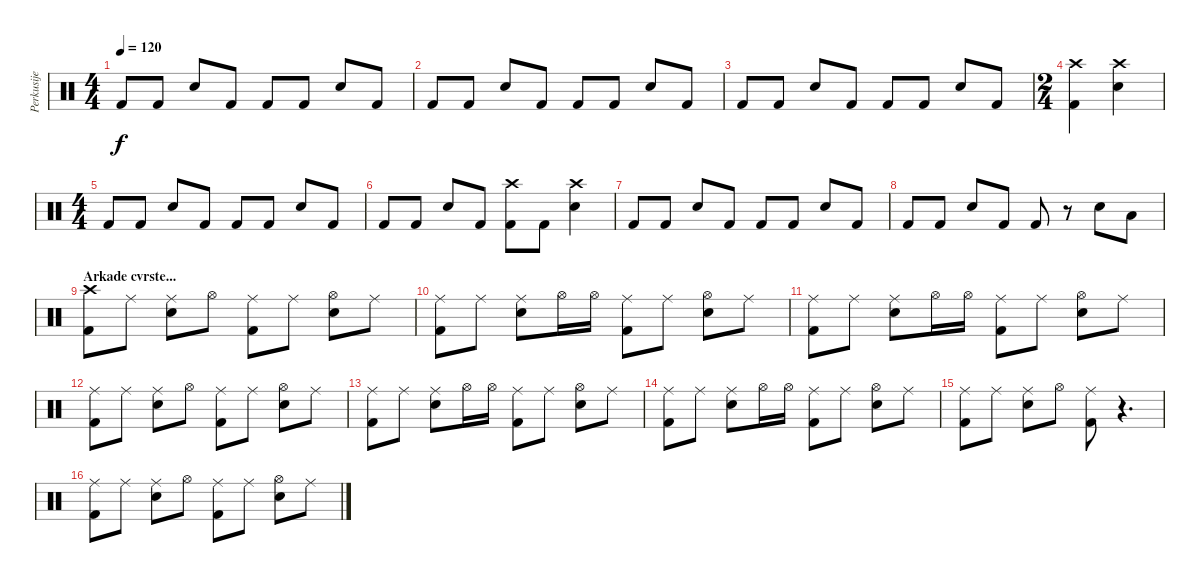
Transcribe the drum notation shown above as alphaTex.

\track ("Perkusije" "Perkusije") {instrument percussion}
\staff {score}
\articulation defaults
\ts (4 4)
\tempo 120
\clef neutral
\ks c "Kick (hit) 2".8{dy f} "Kick (hit) 2".8 "Electric Snare (hit)".8 "Kick (hit) 2".8 "Kick (hit) 2".8 "Kick (hit) 2".8 "Electric Snare (hit)".8 "Kick (hit) 2".8
|
"Kick (hit) 2".8 "Kick (hit) 2".8 "Electric Snare (hit)".8 "Kick (hit) 2".8 "Kick (hit) 2".8 "Kick (hit) 2".8 "Electric Snare (hit)".8 "Kick (hit) 2".8 |
"Kick (hit) 2".8 "Kick (hit) 2".8 "Electric Snare (hit)".8 "Kick (hit) 2".8 "Kick (hit) 2".8 "Kick (hit) 2".8 "Electric Snare (hit)".8 "Kick (hit) 2".8 |
\ts (2 4)
("Crash high (hit)" "Kick (hit) 2").4 ("Crash high (hit)" "Electric Snare (hit)").4 |
\ts (4 4)
"Kick (hit) 2".8 "Kick (hit) 2".8 "Electric Snare (hit)".8 "Kick (hit) 2".8 "Kick (hit) 2".8 "Kick (hit) 2".8 "Electric Snare (hit)".8 "Kick (hit) 2".8 |
"Kick (hit) 2".8 "Kick (hit) 2".8 "Electric Snare (hit)".8 "Kick (hit) 2".8 ("Crash high (hit)" "Kick (hit) 2").8 "Kick (hit) 2".8 ("Crash high (hit)" "Electric Snare (hit)").4 |
"Kick (hit) 2".8 "Kick (hit) 2".8 "Electric Snare (hit)".8 "Kick (hit) 2".8 "Kick (hit) 2".8 "Kick (hit) 2".8 "Electric Snare (hit)".8 "Kick (hit) 2".8 |
"Kick (hit) 2".8 "Kick (hit) 2".8 "Electric Snare (hit)".8 "Kick (hit) 2".8 "Kick (hit) 2".8 r.8 "Electric Snare (hit)".8 "Low Floor Tom (hit)".8 |
\section ("" "Arkade cvrste...")
("Crash high (hit)" "Kick (hit) 2").8 "Ride (middle)".8 ("Ride (middle)" "Electric Snare (hit)").8 "Hi-Hat (open)".8 ("Ride (middle)" "Kick (hit) 2").8 "Ride (middle)".8 ("Hi-Hat (open)" "Electric Snare (hit)").8 "Ride (middle)".8 |
("Ride (middle)" "Kick (hit) 2").8 "Ride (middle)".8 ("Ride (middle)" "Electric Snare (hit)").8 "Hi-Hat (open)".16 "Hi-Hat (open)".16 ("Ride (middle)" "Kick (hit) 2").8 "Ride (middle)".8 ("Hi-Hat (open)" "Electric Snare (hit)").8 "Ride (middle)".8 |
("Ride (middle)" "Kick (hit) 2").8 "Ride (middle)".8 ("Ride (middle)" "Electric Snare (hit)").8 "Hi-Hat (open)".16 "Hi-Hat (open)".16 ("Ride (middle)" "Kick (hit) 2").8 "Ride (middle)".8 ("Hi-Hat (open)" "Electric Snare (hit)").8 "Ride (middle)".8 |
("Ride (middle)" "Kick (hit) 2").8 "Ride (middle)".8 ("Ride (middle)" "Electric Snare (hit)").8 "Hi-Hat (open)".8 ("Ride (middle)" "Kick (hit) 2").8 "Ride (middle)".8 ("Hi-Hat (open)" "Electric Snare (hit)").8 "Ride (middle)".8 |
("Ride (middle)" "Kick (hit) 2").8 "Ride (middle)".8 ("Ride (middle)" "Electric Snare (hit)").8 "Hi-Hat (open)".16 "Hi-Hat (open)".16 ("Ride (middle)" "Kick (hit) 2").8 "Ride (middle)".8 ("Hi-Hat (open)" "Electric Snare (hit)").8 "Ride (middle)".8 |
("Ride (middle)" "Kick (hit) 2").8 "Ride (middle)".8 ("Ride (middle)" "Electric Snare (hit)").8 "Hi-Hat (open)".16 "Hi-Hat (open)".16 ("Ride (middle)" "Kick (hit) 2").8 "Ride (middle)".8 ("Hi-Hat (open)" "Electric Snare (hit)").8 "Ride (middle)".8 |
("Ride (middle)" "Kick (hit) 2").8 "Ride (middle)".8 ("Ride (middle)" "Electric Snare (hit)").8 "Hi-Hat (open)".8 ("Ride (middle)" "Kick (hit) 2").8 r.4{d} |
("Ride (middle)" "Kick (hit) 2").8 "Ride (middle)".8 ("Ride (middle)" "Electric Snare (hit)").8 "Hi-Hat (open)".8 ("Ride (middle)" "Kick (hit) 2").8 "Ride (middle)".8 ("Hi-Hat (open)" "Electric Snare (hit)").8 "Ride (middle)".8
